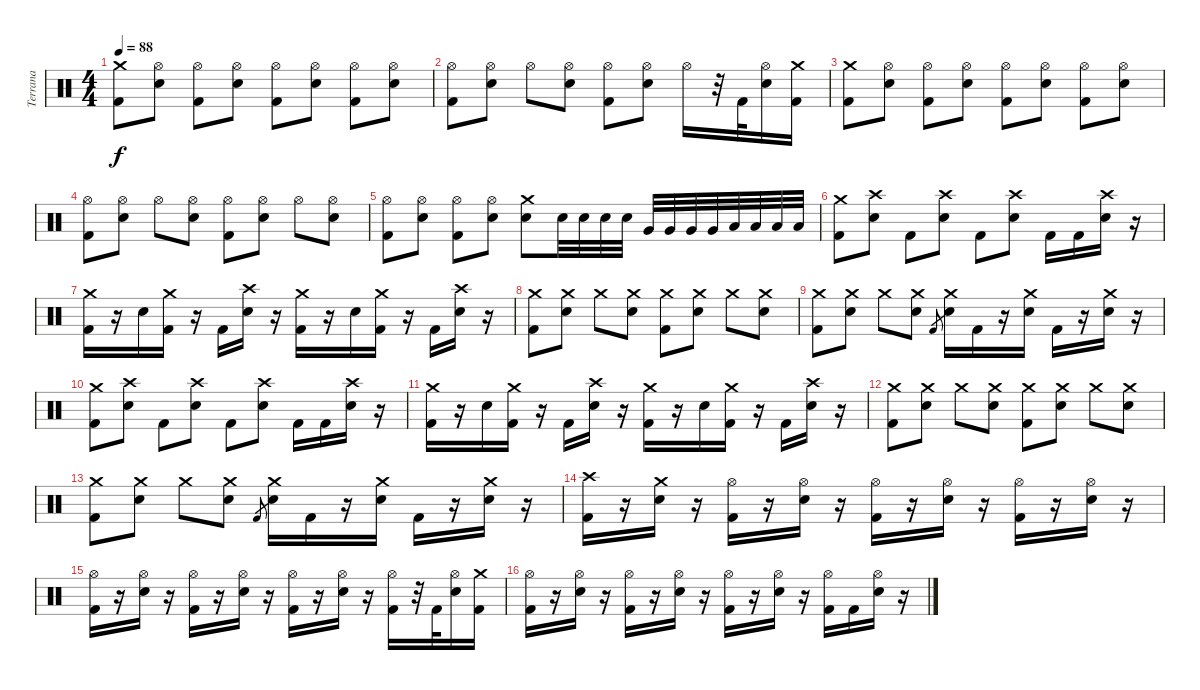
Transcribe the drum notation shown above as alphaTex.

\track ("Terrana" "Terrana") {instrument percussion}
\staff {score}
\articulation defaults
\ts (4 4)
\tempo 88
\clef neutral
\ks c
("Crash medium (hit)" "Kick (hit) 2").8{dy f} ("Hi-Hat (open)" "Electric Snare (hit)").8 ("Hi-Hat (open)" "Kick (hit) 2").8 ("Hi-Hat (open)" "Electric Snare (hit)").8 ("Hi-Hat (open)" "Kick (hit) 2").8 ("Hi-Hat (open)" "Electric Snare (hit)").8 ("Hi-Hat (open)" "Kick (hit) 2").8 ("Hi-Hat (open)" "Electric Snare (hit)").8 |
("Hi-Hat (open)" "Kick (hit) 2").8 ("Hi-Hat (open)" "Electric Snare (hit)").8 "Hi-Hat (open)".8 ("Hi-Hat (open)" "Electric Snare (hit)").8 ("Hi-Hat (open)" "Kick (hit) 2").8 ("Hi-Hat (open)" "Electric Snare (hit)").8 "Hi-Hat (open)".16 r.32 "Kick (hit) 2".32 ("Hi-Hat (open)" "Electric Snare (hit)").16 ("Crash medium (hit)" "Kick (hit) 2").16 |
("Crash medium (hit)" "Kick (hit) 2").8 ("Hi-Hat (open)" "Electric Snare (hit)").8 ("Hi-Hat (open)" "Kick (hit) 2").8 ("Hi-Hat (open)" "Electric Snare (hit)").8 ("Hi-Hat (open)" "Kick (hit) 2").8 ("Hi-Hat (open)" "Electric Snare (hit)").8 ("Hi-Hat (open)" "Kick (hit) 2").8 ("Hi-Hat (open)" "Electric Snare (hit)").8 |
("Hi-Hat (open)" "Kick (hit) 2").8 ("Hi-Hat (open)" "Electric Snare (hit)").8 "Hi-Hat (open)".8 ("Hi-Hat (open)" "Electric Snare (hit)").8 ("Hi-Hat (open)" "Kick (hit) 2").8 ("Hi-Hat (open)" "Electric Snare (hit)").8 "Hi-Hat (open)".8 ("Hi-Hat (open)" "Electric Snare (hit)").8 |
("Hi-Hat (open)" "Kick (hit) 2").8 ("Hi-Hat (open)" "Electric Snare (hit)").8 ("Hi-Hat (open)" "Kick (hit) 2").8 ("Hi-Hat (open)" "Electric Snare (hit)").8 ("Crash medium (hit)" "Electric Snare (hit)").8 "Electric Snare (hit)".32 "Electric Snare (hit)".32 "Electric Snare (hit)".32 "Electric Snare (hit)".32 "Very Low Tom (hit)".32 "Very Low Tom (hit)".32 "Very Low Tom (hit)".32 "Very Low Tom (hit)".32 "Low Floor Tom (hit)".32 "Low Floor Tom (hit)".32 "Low Floor Tom (hit)".32 "Low Floor Tom (hit)".32 |
("Crash medium (hit)" "Kick (hit) 2").8 ("Crash high (hit)" "Electric Snare (hit)").8 "Kick (hit) 2".8 ("Crash high (hit)" "Electric Snare (hit)").8 "Kick (hit) 2".8 ("Crash high (hit)" "Electric Snare (hit)").8 "Kick (hit) 2".16 "Kick (hit) 2".16 ("Crash high (hit)" "Electric Snare (hit)").16 r.16 |
("Crash medium (hit)" "Kick (hit) 2").16 r.16 "Electric Snare (hit)".16 ("Crash medium (hit)" "Kick (hit) 2").16 r.16 "Kick (hit) 2".16 ("Crash high (hit)" "Electric Snare (hit)").16 r.16 ("Crash medium (hit)" "Kick (hit) 2").16 r.16 "Electric Snare (hit)".16 ("Crash medium (hit)" "Kick (hit) 2").16 r.16 "Kick (hit) 2".16 ("Crash high (hit)" "Electric Snare (hit)").16 r.16 |
("Crash medium (hit)" "Kick (hit) 2").8 ("Crash medium (hit)" "Electric Snare (hit)").8 "Crash medium (hit)".8 ("Crash medium (hit)" "Electric Snare (hit)").8 ("Crash medium (hit)" "Kick (hit) 2").8 ("Crash medium (hit)" "Electric Snare (hit)").8 "Crash medium (hit)".8 ("Crash medium (hit)" "Electric Snare (hit)").8 |
("Crash medium (hit)" "Kick (hit) 2").8 ("Crash medium (hit)" "Electric Snare (hit)").8 "Crash medium (hit)".8 ("Crash medium (hit)" "Electric Snare (hit)").8 "Kick (hit) 2".8{gr} ("Crash medium (hit)" "Electric Snare (hit)").16 "Kick (hit) 2".16 r.16 ("Crash medium (hit)" "Electric Snare (hit)").16 "Kick (hit) 2".16 r.16 ("Crash medium (hit)" "Electric Snare (hit)").16 r.16 |
("Crash medium (hit)" "Kick (hit) 2").8 ("Crash high (hit)" "Electric Snare (hit)").8 "Kick (hit) 2".8 ("Crash high (hit)" "Electric Snare (hit)").8 "Kick (hit) 2".8 ("Crash high (hit)" "Electric Snare (hit)").8 "Kick (hit) 2".16 "Kick (hit) 2".16 ("Crash high (hit)" "Electric Snare (hit)").16 r.16 |
("Crash medium (hit)" "Kick (hit) 2").16 r.16 "Electric Snare (hit)".16 ("Crash medium (hit)" "Kick (hit) 2").16 r.16 "Kick (hit) 2".16 ("Crash high (hit)" "Electric Snare (hit)").16 r.16 ("Crash medium (hit)" "Kick (hit) 2").16 r.16 "Electric Snare (hit)".16 ("Crash medium (hit)" "Kick (hit) 2").16 r.16 "Kick (hit) 2".16 ("Crash high (hit)" "Electric Snare (hit)").16 r.16 |
("Crash medium (hit)" "Kick (hit) 2").8 ("Crash medium (hit)" "Electric Snare (hit)").8 "Crash medium (hit)".8 ("Crash medium (hit)" "Electric Snare (hit)").8 ("Crash medium (hit)" "Kick (hit) 2").8 ("Crash medium (hit)" "Electric Snare (hit)").8 "Crash medium (hit)".8 ("Crash medium (hit)" "Electric Snare (hit)").8 |
("Crash medium (hit)" "Kick (hit) 2").8 ("Crash medium (hit)" "Electric Snare (hit)").8 "Crash medium (hit)".8 ("Crash medium (hit)" "Electric Snare (hit)").8 "Kick (hit) 2".8{gr} ("Crash medium (hit)" "Electric Snare (hit)").16 "Kick (hit) 2".16 r.16 ("Crash medium (hit)" "Electric Snare (hit)").16 "Kick (hit) 2".16 r.16 ("Crash medium (hit)" "Electric Snare (hit)").16 r.16 |
("Crash high (hit)" "Kick (hit) 2").16 r.16 ("Crash medium (hit)" "Electric Snare (hit)").16 r.16 ("Hi-Hat (open)" "Kick (hit) 2").16 r.16 ("Hi-Hat (open)" "Electric Snare (hit)").16 r.16 ("Hi-Hat (open)" "Kick (hit) 2").16 r.16 ("Hi-Hat (open)" "Electric Snare (hit)").16 r.16 ("Hi-Hat (open)" "Kick (hit) 2").16 r.16 ("Hi-Hat (open)" "Electric Snare (hit)").16 r.16 |
("Hi-Hat (open)" "Kick (hit) 2").16 r.16 ("Hi-Hat (open)" "Electric Snare (hit)").16 r.16 ("Hi-Hat (open)" "Kick (hit) 2").16 r.16 ("Hi-Hat (open)" "Electric Snare (hit)").16 r.16 ("Hi-Hat (open)" "Kick (hit) 2").16 r.16 ("Hi-Hat (open)" "Electric Snare (hit)").16 r.16 ("Hi-Hat (open)" "Kick (hit) 2").16 r.32 "Kick (hit) 2".32 ("Hi-Hat (open)" "Electric Snare (hit)").16 ("Crash medium (hit)" "Kick (hit) 2").16 |
("Hi-Hat (open)" "Kick (hit) 2").16 r.16 ("Hi-Hat (open)" "Electric Snare (hit)").16 r.16 ("Hi-Hat (open)" "Kick (hit) 2").16 r.16 ("Hi-Hat (open)" "Electric Snare (hit)").16 r.16 ("Hi-Hat (open)" "Kick (hit) 2").16 r.16 ("Hi-Hat (open)" "Electric Snare (hit)").16 r.16 ("Hi-Hat (open)" "Kick (hit) 2").16 "Kick (hit) 2".16 ("Hi-Hat (open)" "Electric Snare (hit)").16 r.16
